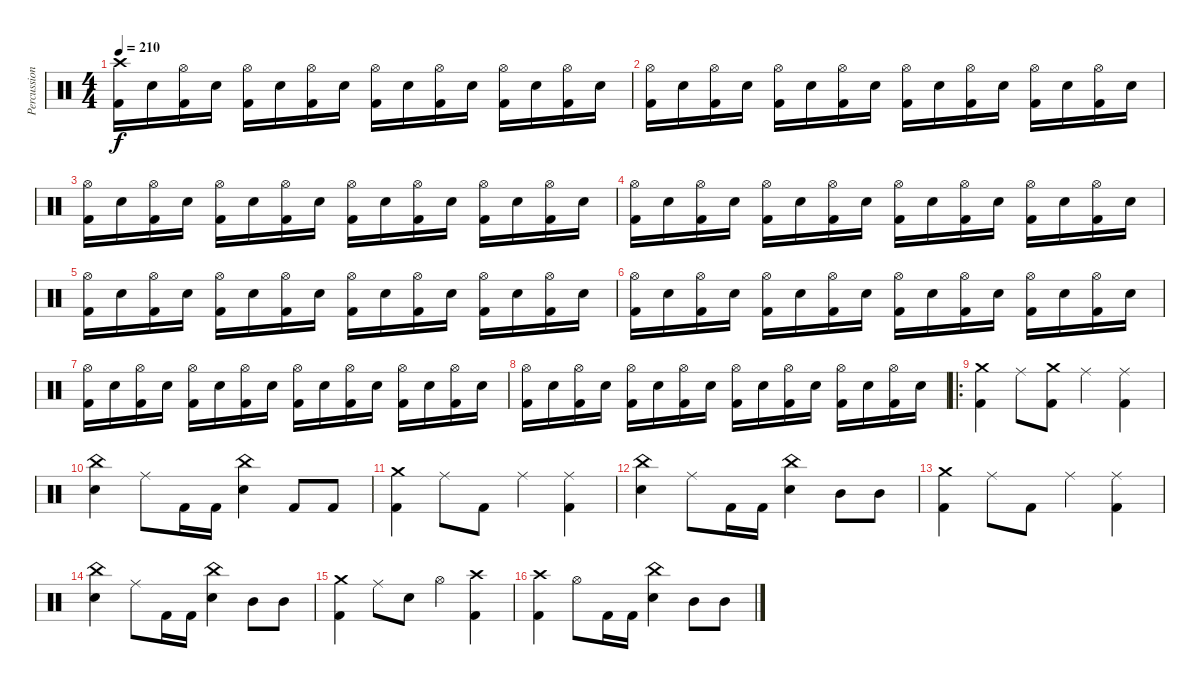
\track ("Percussion" "Percussion") {instrument percussion}
\staff {score}
\articulation defaults
\ts (4 4)
\tempo 210
\clef neutral
\ks c
("Crash high (hit)" "Kick (hit) 2").16{dy f} "Electric Snare (hit)".16 ("Hi-Hat (open)" "Kick (hit) 2").16 "Electric Snare (hit)".16 ("Hi-Hat (open)" "Kick (hit) 2").16 "Electric Snare (hit)".16 ("Hi-Hat (open)" "Kick (hit) 2").16 "Electric Snare (hit)".16 ("Hi-Hat (open)" "Kick (hit) 2").16 "Electric Snare (hit)".16 ("Hi-Hat (open)" "Kick (hit) 2").16 "Electric Snare (hit)".16 ("Hi-Hat (open)" "Kick (hit) 2").16 "Electric Snare (hit)".16 ("Hi-Hat (open)" "Kick (hit) 2").16 "Electric Snare (hit)".16 |
("Hi-Hat (open)" "Kick (hit) 2").16 "Electric Snare (hit)".16 ("Hi-Hat (open)" "Kick (hit) 2").16 "Electric Snare (hit)".16 ("Hi-Hat (open)" "Kick (hit) 2").16 "Electric Snare (hit)".16 ("Hi-Hat (open)" "Kick (hit) 2").16 "Electric Snare (hit)".16 ("Hi-Hat (open)" "Kick (hit) 2").16 "Electric Snare (hit)".16 ("Hi-Hat (open)" "Kick (hit) 2").16 "Electric Snare (hit)".16 ("Hi-Hat (open)" "Kick (hit) 2").16 "Electric Snare (hit)".16 ("Hi-Hat (open)" "Kick (hit) 2").16 "Electric Snare (hit)".16 |
("Hi-Hat (open)" "Kick (hit) 2").16 "Electric Snare (hit)".16 ("Hi-Hat (open)" "Kick (hit) 2").16 "Electric Snare (hit)".16 ("Hi-Hat (open)" "Kick (hit) 2").16 "Electric Snare (hit)".16 ("Hi-Hat (open)" "Kick (hit) 2").16 "Electric Snare (hit)".16 ("Hi-Hat (open)" "Kick (hit) 2").16 "Electric Snare (hit)".16 ("Hi-Hat (open)" "Kick (hit) 2").16 "Electric Snare (hit)".16 ("Hi-Hat (open)" "Kick (hit) 2").16 "Electric Snare (hit)".16 ("Hi-Hat (open)" "Kick (hit) 2").16 "Electric Snare (hit)".16 |
("Hi-Hat (open)" "Kick (hit) 2").16 "Electric Snare (hit)".16 ("Hi-Hat (open)" "Kick (hit) 2").16 "Electric Snare (hit)".16 ("Hi-Hat (open)" "Kick (hit) 2").16 "Electric Snare (hit)".16 ("Hi-Hat (open)" "Kick (hit) 2").16 "Electric Snare (hit)".16 ("Hi-Hat (open)" "Kick (hit) 2").16 "Electric Snare (hit)".16 ("Hi-Hat (open)" "Kick (hit) 2").16 "Electric Snare (hit)".16 ("Hi-Hat (open)" "Kick (hit) 2").16 "Electric Snare (hit)".16 ("Hi-Hat (open)" "Kick (hit) 2").16 "Electric Snare (hit)".16 |
("Hi-Hat (open)" "Kick (hit) 2").16 "Electric Snare (hit)".16 ("Hi-Hat (open)" "Kick (hit) 2").16 "Electric Snare (hit)".16 ("Hi-Hat (open)" "Kick (hit) 2").16 "Electric Snare (hit)".16 ("Hi-Hat (open)" "Kick (hit) 2").16 "Electric Snare (hit)".16 ("Hi-Hat (open)" "Kick (hit) 2").16 "Electric Snare (hit)".16 ("Hi-Hat (open)" "Kick (hit) 2").16 "Electric Snare (hit)".16 ("Hi-Hat (open)" "Kick (hit) 2").16 "Electric Snare (hit)".16 ("Hi-Hat (open)" "Kick (hit) 2").16 "Electric Snare (hit)".16 |
("Hi-Hat (open)" "Kick (hit) 2").16 "Electric Snare (hit)".16 ("Hi-Hat (open)" "Kick (hit) 2").16 "Electric Snare (hit)".16 ("Hi-Hat (open)" "Kick (hit) 2").16 "Electric Snare (hit)".16 ("Hi-Hat (open)" "Kick (hit) 2").16 "Electric Snare (hit)".16 ("Hi-Hat (open)" "Kick (hit) 2").16 "Electric Snare (hit)".16 ("Hi-Hat (open)" "Kick (hit) 2").16 "Electric Snare (hit)".16 ("Hi-Hat (open)" "Kick (hit) 2").16 "Electric Snare (hit)".16 ("Hi-Hat (open)" "Kick (hit) 2").16 "Electric Snare (hit)".16 |
("Hi-Hat (open)" "Kick (hit) 2").16 "Electric Snare (hit)".16 ("Hi-Hat (open)" "Kick (hit) 2").16 "Electric Snare (hit)".16 ("Hi-Hat (open)" "Kick (hit) 2").16 "Electric Snare (hit)".16 ("Hi-Hat (open)" "Kick (hit) 2").16 "Electric Snare (hit)".16 ("Hi-Hat (open)" "Kick (hit) 2").16 "Electric Snare (hit)".16 ("Hi-Hat (open)" "Kick (hit) 2").16 "Electric Snare (hit)".16 ("Hi-Hat (open)" "Kick (hit) 2").16 "Electric Snare (hit)".16 ("Hi-Hat (open)" "Kick (hit) 2").16 "Electric Snare (hit)".16 |
("Hi-Hat (open)" "Kick (hit) 2").16 "Electric Snare (hit)".16 ("Hi-Hat (open)" "Kick (hit) 2").16 "Electric Snare (hit)".16 ("Hi-Hat (open)" "Kick (hit) 2").16 "Electric Snare (hit)".16 ("Hi-Hat (open)" "Kick (hit) 2").16 "Electric Snare (hit)".16 ("Hi-Hat (open)" "Kick (hit) 2").16 "Electric Snare (hit)".16 ("Hi-Hat (open)" "Kick (hit) 2").16 "Electric Snare (hit)".16 ("Hi-Hat (open)" "Kick (hit) 2").16 "Electric Snare (hit)".16 ("Hi-Hat (open)" "Kick (hit) 2").16 "Electric Snare (hit)".16 |
\ro
("Crash medium (hit)" "Kick (hit) 2").4 "Ride (middle)".8 ("Crash medium (hit)" "Kick (hit) 2").8 "Ride (middle)".4 ("Ride (middle)" "Kick (hit) 2").4 |
("China (hit)" "Electric Snare (hit)").4 "Ride (middle)".8 "Kick (hit) 2".16 "Kick (hit) 2".16 ("China (hit)" "Electric Snare (hit)").4 "Kick (hit) 2".8 "Kick (hit) 2".8 |
("Crash medium (hit)" "Kick (hit) 2").4 "Ride (middle)".8 "Kick (hit) 2".8 "Ride (middle)".4 ("Ride (middle)" "Kick (hit) 2").4 |
("China (hit)" "Electric Snare (hit)").4 "Ride (middle)".8 "Kick (hit) 2".16 "Kick (hit) 2".16 ("China (hit)" "Electric Snare (hit)").4 "Mid Tom (hit)".8 "Mid Tom (hit)".8 |
("Crash medium (hit)" "Kick (hit) 2").4 "Ride (middle)".8 "Kick (hit) 2".8 "Ride (middle)".4 ("Ride (middle)" "Kick (hit) 2").4 |
("China (hit)" "Electric Snare (hit)").4 "Ride (middle)".8 "Kick (hit) 2".16 "Kick (hit) 2".16 ("China (hit)" "Electric Snare (hit)").4 "Mid Tom (hit)".8 "Mid Tom (hit)".8 |
("Crash medium (hit)" "Kick (hit) 2").4 "Ride (middle)".8 "Electric Snare (hit)".8 "Hi-Hat (open)".4 ("Crash high (hit)" "Kick (hit) 2").4 |
("Crash high (hit)" "Kick (hit) 2").4 "Hi-Hat (open)".8 "Kick (hit) 2".16 "Kick (hit) 2".16 ("China (hit)" "Electric Snare (hit)").4 "Mid Tom (hit)".8 "Mid Tom (hit)".8
